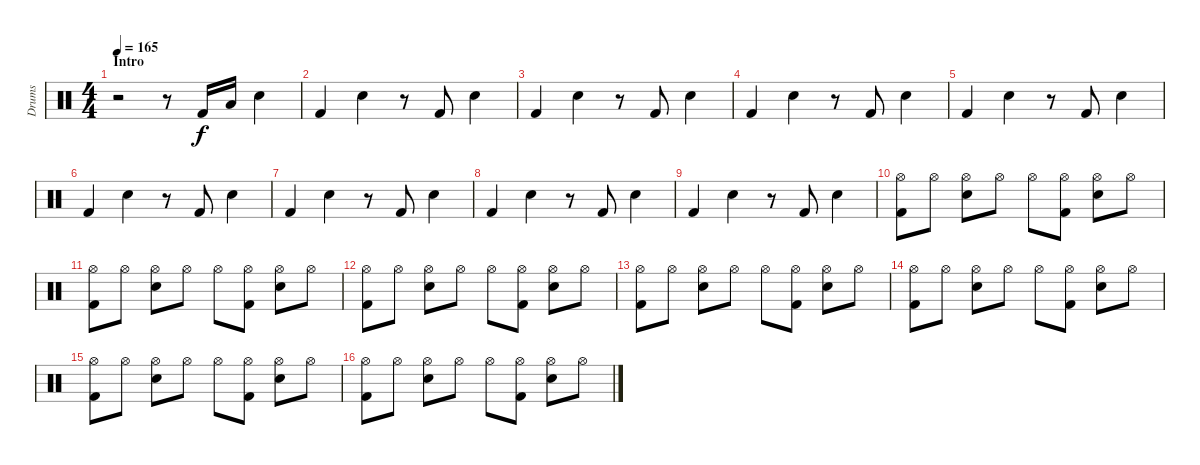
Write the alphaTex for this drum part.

\track ("Drums" "Drums") {instrument percussion}
\staff {score}
\articulation defaults
\ts (4 4)
\section ("" "Intro")
\tempo 165
\clef neutral
\ks c
r.2{dy f} r.8 "Kick (hit) 2".16 "Low Floor Tom (hit)".16 "Snare (hit) 2".4 |
"Kick (hit) 2".4 "Snare (hit) 2".4 r.8 "Kick (hit) 2".8 "Snare (hit) 2".4 |
"Kick (hit) 2".4 "Snare (hit) 2".4 r.8 "Kick (hit) 2".8 "Snare (hit) 2".4 |
"Kick (hit) 2".4 "Snare (hit) 2".4 r.8 "Kick (hit) 2".8 "Snare (hit) 2".4 |
"Kick (hit) 2".4 "Snare (hit) 2".4 r.8 "Kick (hit) 2".8 "Snare (hit) 2".4 |
"Kick (hit) 2".4 "Snare (hit) 2".4 r.8 "Kick (hit) 2".8 "Snare (hit) 2".4 |
"Kick (hit) 2".4 "Snare (hit) 2".4 r.8 "Kick (hit) 2".8 "Snare (hit) 2".4 |
"Kick (hit) 2".4 "Snare (hit) 2".4 r.8 "Kick (hit) 2".8 "Snare (hit) 2".4 |
"Kick (hit) 2".4 "Snare (hit) 2".4 r.8 "Kick (hit) 2".8 "Snare (hit) 2".4 |
("Hi-Hat (open)" "Kick (hit) 2").8 "Hi-Hat (open)".8 ("Hi-Hat (open)" "Snare (hit) 2").8 "Hi-Hat (open)".8 "Hi-Hat (open)".8 ("Kick (hit) 2" "Hi-Hat (open)").8 ("Hi-Hat (open)" "Snare (hit) 2").8 "Hi-Hat (open)".8 |
("Kick (hit) 2" "Hi-Hat (open)").8 "Hi-Hat (open)".8 ("Snare (hit) 2" "Hi-Hat (open)").8 "Hi-Hat (open)".8 "Hi-Hat (open)".8 ("Kick (hit) 2" "Hi-Hat (open)").8 ("Snare (hit) 2" "Hi-Hat (open)").8 "Hi-Hat (open)".8 |
("Kick (hit) 2" "Hi-Hat (open)").8 "Hi-Hat (open)".8 ("Snare (hit) 2" "Hi-Hat (open)").8 "Hi-Hat (open)".8 "Hi-Hat (open)".8 ("Kick (hit) 2" "Hi-Hat (open)").8 ("Snare (hit) 2" "Hi-Hat (open)").8 "Hi-Hat (open)".8 |
("Kick (hit) 2" "Hi-Hat (open)").8 "Hi-Hat (open)".8 ("Snare (hit) 2" "Hi-Hat (open)").8 "Hi-Hat (open)".8 "Hi-Hat (open)".8 ("Kick (hit) 2" "Hi-Hat (open)").8 ("Snare (hit) 2" "Hi-Hat (open)").8 "Hi-Hat (open)".8 |
("Kick (hit) 2" "Hi-Hat (open)").8 "Hi-Hat (open)".8 ("Snare (hit) 2" "Hi-Hat (open)").8 "Hi-Hat (open)".8 "Hi-Hat (open)".8 ("Kick (hit) 2" "Hi-Hat (open)").8 ("Snare (hit) 2" "Hi-Hat (open)").8 "Hi-Hat (open)".8 |
("Kick (hit) 2" "Hi-Hat (open)").8 "Hi-Hat (open)".8 ("Snare (hit) 2" "Hi-Hat (open)").8 "Hi-Hat (open)".8 "Hi-Hat (open)".8 ("Kick (hit) 2" "Hi-Hat (open)").8 ("Snare (hit) 2" "Hi-Hat (open)").8 "Hi-Hat (open)".8 |
("Kick (hit) 2" "Hi-Hat (open)").8 "Hi-Hat (open)".8 ("Snare (hit) 2" "Hi-Hat (open)").8 "Hi-Hat (open)".8 "Hi-Hat (open)".8 ("Kick (hit) 2" "Hi-Hat (open)").8 ("Snare (hit) 2" "Hi-Hat (open)").8 "Hi-Hat (open)".8
